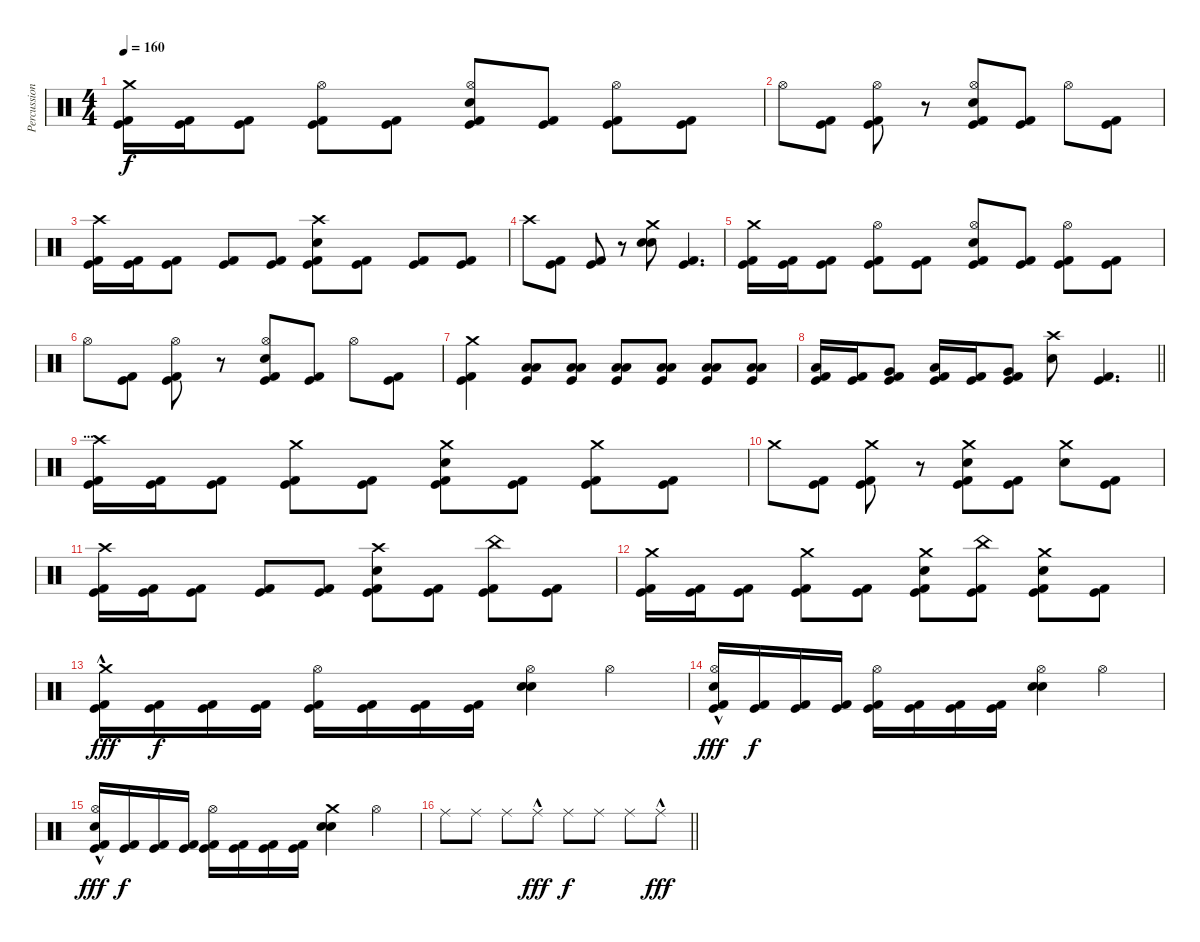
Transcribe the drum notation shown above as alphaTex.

\track ("Percussion" "Percussion") {instrument percussion}
\staff {score}
\articulation defaults
\ts (4 4)
\tempo 160
\clef neutral
\ks c
("Crash medium (hit)" "Kick (hit)" "Kick (hit) 2").16{dy f} ("Kick (hit)" "Kick (hit) 2").16 ("Kick (hit)" "Kick (hit) 2").8 ("Hi-Hat (open)" "Kick (hit)" "Kick (hit) 2").8 ("Kick (hit)" "Kick (hit) 2").8 ("Hi-Hat (open)" "Electric Snare (hit)" "Kick (hit)" "Kick (hit) 2").8 ("Kick (hit)" "Kick (hit) 2").8 ("Hi-Hat (open)" "Kick (hit)" "Kick (hit) 2").8 ("Kick (hit)" "Kick (hit) 2").8 |
"Hi-Hat (open)".8 ("Kick (hit)" "Kick (hit) 2").8 ("Hi-Hat (open)" "Kick (hit)" "Kick (hit) 2").8 r.8 ("Hi-Hat (open)" "Electric Snare (hit)" "Kick (hit)" "Kick (hit) 2").8 ("Kick (hit)" "Kick (hit) 2").8 "Hi-Hat (open)".8 ("Kick (hit)" "Kick (hit) 2").8 |
("Crash high (hit)" "Kick (hit)" "Kick (hit) 2").16 ("Kick (hit)" "Kick (hit) 2").16 ("Kick (hit)" "Kick (hit) 2").8 ("Kick (hit)" "Kick (hit) 2").8 ("Kick (hit)" "Kick (hit) 2").8 ("Crash high (hit)" "Electric Snare (hit)" "Kick (hit)" "Kick (hit) 2").8 ("Kick (hit)" "Kick (hit) 2").8 ("Kick (hit)" "Kick (hit) 2").8 ("Kick (hit)" "Kick (hit) 2").8 |
"Crash high (hit)".8 ("Kick (hit)" "Kick (hit) 2").8 ("Kick (hit)" "Kick (hit) 2").8 r.8 ("Crash medium (hit)" "Electric Snare (hit)" "Electric Snare (hit)").8 ("Kick (hit)" "Kick (hit) 2").4{d} |
("Crash medium (hit)" "Kick (hit)" "Kick (hit) 2").16 ("Kick (hit)" "Kick (hit) 2").16 ("Kick (hit)" "Kick (hit) 2").8 ("Hi-Hat (open)" "Kick (hit)" "Kick (hit) 2").8 ("Kick (hit)" "Kick (hit) 2").8 ("Hi-Hat (open)" "Electric Snare (hit)" "Kick (hit)" "Kick (hit) 2").8 ("Kick (hit)" "Kick (hit) 2").8 ("Hi-Hat (open)" "Kick (hit)" "Kick (hit) 2").8 ("Kick (hit)" "Kick (hit) 2").8 |
"Hi-Hat (open)".8 ("Kick (hit)" "Kick (hit) 2").8 ("Hi-Hat (open)" "Kick (hit)" "Kick (hit) 2").8 r.8 ("Hi-Hat (open)" "Electric Snare (hit)" "Kick (hit)" "Kick (hit) 2").8 ("Kick (hit)" "Kick (hit) 2").8 "Hi-Hat (open)".8 ("Kick (hit)" "Kick (hit) 2").8 |
("Crash medium (hit)" "Kick (hit)" "Kick (hit) 2").4 ("Low Tom (hit)" "Low Floor Tom (hit)" "Kick (hit)").8{volume 7} ("Low Tom (hit)" "Low Floor Tom (hit)" "Kick (hit)").8{volume 13} ("Low Tom (hit)" "Low Floor Tom (hit)" "Kick (hit)").8 ("Low Tom (hit)" "Low Floor Tom (hit)" "Kick (hit)").8 ("Low Tom (hit)" "Low Floor Tom (hit)" "Kick (hit)").8 ("Low Tom (hit)" "Low Floor Tom (hit)" "Kick (hit)").8 |
\barLineRight lightlight
("Low Tom (hit)" "Kick (hit)" "Kick (hit) 2").16 ("Kick (hit)" "Kick (hit) 2").16 ("Very Low Tom (hit)" "Kick (hit)" "Kick (hit) 2").8 ("Low Tom (hit)" "Kick (hit)" "Kick (hit) 2").16 ("Kick (hit)" "Kick (hit) 2").16 ("Very Low Tom (hit)" "Kick (hit)" "Kick (hit) 2").8 ("Crash high (hit)" "Electric Snare (hit)").8 ("Kick (hit)" "Kick (hit) 2").4{d} |
\section ("" "...")
("Crash high (hit)" "Kick (hit)" "Kick (hit) 2").16 ("Kick (hit)" "Kick (hit) 2").16 ("Kick (hit)" "Kick (hit) 2").8 ("Crash medium (hit)" "Kick (hit)" "Kick (hit) 2").8 ("Kick (hit)" "Kick (hit) 2").8 ("Crash medium (hit)" "Electric Snare (hit)" "Kick (hit)" "Kick (hit) 2").8 ("Kick (hit)" "Kick (hit) 2").8 ("Crash medium (hit)" "Kick (hit)" "Kick (hit) 2").8 ("Kick (hit)" "Kick (hit) 2").8 |
"Crash medium (hit)".8 ("Kick (hit)" "Kick (hit) 2").8 ("Crash medium (hit)" "Kick (hit)" "Kick (hit) 2").8 r.8 ("Crash medium (hit)" "Electric Snare (hit)" "Kick (hit)" "Kick (hit) 2").8 ("Kick (hit)" "Kick (hit) 2").8 ("Crash medium (hit)" "Electric Snare (hit)").8 ("Kick (hit)" "Kick (hit) 2").8 |
("Crash high (hit)" "Kick (hit)" "Kick (hit) 2").16 ("Kick (hit)" "Kick (hit) 2").16 ("Kick (hit)" "Kick (hit) 2").8 ("Kick (hit)" "Kick (hit) 2").8 ("Kick (hit)" "Kick (hit) 2").8 ("Crash high (hit)" "Electric Snare (hit)" "Kick (hit)" "Kick (hit) 2").8 ("Kick (hit)" "Kick (hit) 2").8 ("China (hit)" "Kick (hit)" "Kick (hit) 2").8 ("Kick (hit)" "Kick (hit) 2").8 |
("Crash medium (hit)" "Kick (hit)" "Kick (hit) 2").16 ("Kick (hit)" "Kick (hit) 2").16 ("Kick (hit)" "Kick (hit) 2").8 ("Crash medium (hit)" "Kick (hit)" "Kick (hit) 2").8 ("Kick (hit)" "Kick (hit) 2").8 ("Crash medium (hit)" "Electric Snare (hit)" "Kick (hit)" "Kick (hit) 2").8 ("China (hit)" "Kick (hit)" "Kick (hit) 2").8 ("Crash medium (hit)" "Electric Snare (hit)" "Kick (hit)" "Kick (hit) 2").8 ("Kick (hit)" "Kick (hit) 2").8 |
("Crash medium (hit)"{hac} "Kick (hit)" "Kick (hit) 2").16{dy fff} ("Kick (hit)" "Kick (hit) 2").16{dy f} ("Kick (hit)" "Kick (hit) 2").16 ("Kick (hit)" "Kick (hit) 2").16 ("Hi-Hat (open)" "Kick (hit)" "Kick (hit) 2").16 ("Kick (hit)" "Kick (hit) 2").16 ("Kick (hit)" "Kick (hit) 2").16 ("Kick (hit)" "Kick (hit) 2").16 ("Hi-Hat (open)" "Electric Snare (hit)" "Electric Snare (hit)").4 "Hi-Hat (open)".4 |
("Hi-Hat (open)"{hac} "Electric Snare (hit)" "Kick (hit)" "Kick (hit) 2").16{dy fff} ("Kick (hit)" "Kick (hit) 2").16{dy f} ("Kick (hit)" "Kick (hit) 2").16 ("Kick (hit)" "Kick (hit) 2").16 ("Hi-Hat (open)" "Kick (hit)" "Kick (hit) 2").16 ("Kick (hit)" "Kick (hit) 2").16 ("Kick (hit)" "Kick (hit) 2").16 ("Kick (hit)" "Kick (hit) 2").16 ("Hi-Hat (open)" "Electric Snare (hit)" "Electric Snare (hit)").4 "Hi-Hat (open)".4 |
("Hi-Hat (open)"{hac} "Electric Snare (hit)" "Kick (hit)" "Kick (hit) 2").16{dy fff} ("Kick (hit)" "Kick (hit) 2").16{dy f} ("Kick (hit)" "Kick (hit) 2").16 ("Kick (hit)" "Kick (hit) 2").16 ("Hi-Hat (open)" "Kick (hit)" "Kick (hit) 2").16 ("Kick (hit)" "Kick (hit) 2").16 ("Kick (hit)" "Kick (hit) 2").16 ("Kick (hit)" "Kick (hit) 2").16 ("Crash medium (hit)" "Electric Snare (hit)" "Electric Snare (hit)").4 "Hi-Hat (open)".4 |
\barLineRight lightlight "Ride (middle)".8 "Ride (middle)".8 "Ride (middle)".8 "Ride (middle)"{hac}.8{dy fff} "Ride (middle)".8{dy f} "Ride (middle)".8 "Ride (middle)".8 "Ride (middle)"{hac}.8{dy fff}
